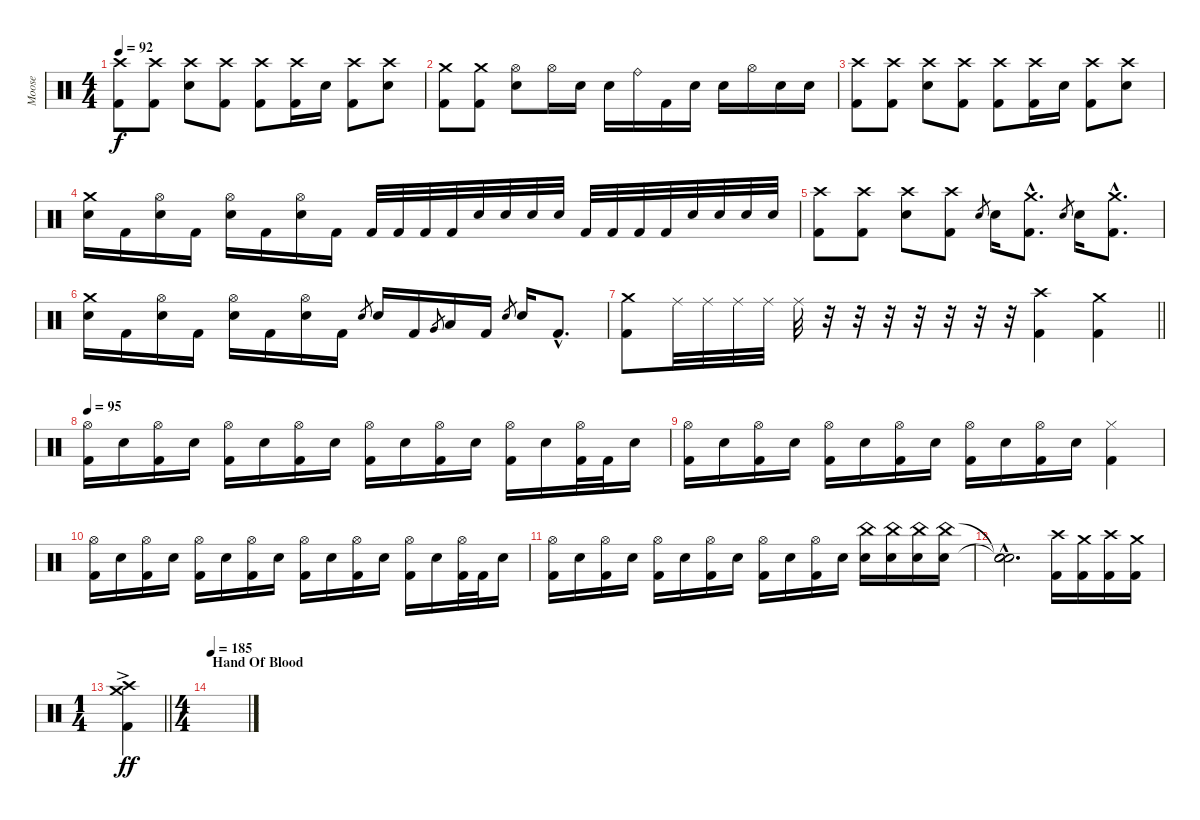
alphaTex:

\track ("Moose" "Moose") {instrument percussion}
\staff {score}
\articulation defaults
\ts (4 4)
\tempo 92
\clef neutral
\ks c
("Crash high (hit)" "Kick (hit) 2").8{dy f} ("Crash high (hit)" "Kick (hit) 2").8 ("Crash high (hit)" "Electric Snare (hit)").8 ("Crash high (hit)" "Kick (hit) 2").8 ("Crash high (hit)" "Kick (hit) 2").8 ("Crash high (hit)" "Kick (hit) 2").16 "Electric Snare (hit)".16 ("Crash high (hit)" "Kick (hit) 2").8 ("Crash high (hit)" "Electric Snare (hit)").8 |
("Crash medium (hit)" "Kick (hit) 2").8 ("Crash medium (hit)" "Kick (hit) 2").8 ("Hi-Hat (open)" "Electric Snare (hit)").8 "Hi-Hat (open)".16 "Electric Snare (hit)".16 "Electric Snare (hit)".16 "Ride (bell)".16 "Kick (hit) 2".16 "Electric Snare (hit)".16 "Electric Snare (hit)".16 "Hi-Hat (open)".16 "Electric Snare (hit)".16 "Electric Snare (hit)".16 |
("Crash high (hit)" "Kick (hit) 2").8 ("Crash high (hit)" "Kick (hit) 2").8 ("Crash high (hit)" "Electric Snare (hit)").8 ("Crash high (hit)" "Kick (hit) 2").8 ("Crash high (hit)" "Kick (hit) 2").8 ("Crash high (hit)" "Kick (hit) 2").16 "Electric Snare (hit)".16 ("Crash high (hit)" "Kick (hit) 2").8 ("Crash high (hit)" "Electric Snare (hit)").8 |
("Crash medium (hit)" "Electric Snare (hit)").16 "Kick (hit) 2".16 ("Hi-Hat (open)" "Electric Snare (hit)").16 "Kick (hit) 2".16 ("Hi-Hat (open)" "Electric Snare (hit)").16 "Kick (hit) 2".16 ("Hi-Hat (open)" "Electric Snare (hit)").16 "Kick (hit) 2".16 "Kick (hit) 2".32 "Kick (hit) 2".32 "Kick (hit) 2".32 "Kick (hit) 2".32 "Electric Snare (hit)".32 "Electric Snare (hit)".32 "Electric Snare (hit)".32 "Electric Snare (hit)".32 "Kick (hit) 2".32 "Kick (hit) 2".32 "Kick (hit) 2".32 "Kick (hit) 2".32 "Electric Snare (hit)".32 "Electric Snare (hit)".32 "Electric Snare (hit)".32 "Electric Snare (hit)".32 |
("Crash high (hit)" "Kick (hit) 2").8 ("Crash high (hit)" "Kick (hit) 2").8 ("Crash high (hit)" "Electric Snare (hit)").8 ("Crash high (hit)" "Kick (hit) 2").8 "Electric Snare (hit)".8{gr} "Electric Snare (hit)".16 ("Crash medium (hit)"{hac} "Kick (hit) 2"{hac}).8{d} "Electric Snare (hit)".8{gr} "Electric Snare (hit)".16 ("Crash medium (hit)"{hac} "Kick (hit) 2"{hac}).8{d} |
("Crash medium (hit)" "Electric Snare (hit)").16 "Kick (hit) 2".16 ("Hi-Hat (open)" "Electric Snare (hit)").16 "Kick (hit) 2".16 ("Hi-Hat (open)" "Electric Snare (hit)").16 "Kick (hit) 2".16 ("Hi-Hat (open)" "Electric Snare (hit)").16 "Kick (hit) 2".16 "Electric Snare (hit)".8{gr} "Electric Snare (hit)".16 "Kick (hit) 2".16 "Very Low Tom (hit)".8{gr} "Low Floor Tom (hit)".16 "Kick (hit) 2".16 "Electric Snare (hit)".8{gr} "Electric Snare (hit)".16 "Kick (hit) 2"{hac}.8{d} |
\barLineRight lightlight
("Crash medium (hit)" "Kick (hit) 2").8 "Ride (middle)".32 "Ride (middle)".32 "Ride (middle)".32 "Ride (middle)".32 "Ride (middle)".32 r.32 r.32 r.32 r.32 r.32 r.32 r.32 ("Crash high (hit)" "Kick (hit) 2").4 ("Crash medium (hit)" "Kick (hit) 2").4 |
\tempo 95
("Hi-Hat (open)" "Kick (hit) 2").16 "Electric Snare (hit)".16 ("Hi-Hat (open)" "Kick (hit) 2").16 "Electric Snare (hit)".16 ("Hi-Hat (open)" "Kick (hit) 2").16 "Electric Snare (hit)".16 ("Hi-Hat (open)" "Kick (hit) 2").16 "Electric Snare (hit)".16 ("Hi-Hat (open)" "Kick (hit) 2").16 "Electric Snare (hit)".16 ("Hi-Hat (open)" "Kick (hit) 2").16 "Electric Snare (hit)".16 ("Hi-Hat (open)" "Kick (hit) 2").16 "Electric Snare (hit)".16 ("Hi-Hat (open)" "Kick (hit) 2").32 "Kick (hit) 2".32 "Electric Snare (hit)".16 |
("Hi-Hat (open)" "Kick (hit) 2").16 "Electric Snare (hit)".16 ("Hi-Hat (open)" "Kick (hit) 2").16 "Electric Snare (hit)".16 ("Hi-Hat (open)" "Kick (hit) 2").16 "Electric Snare (hit)".16 ("Hi-Hat (open)" "Kick (hit) 2").16 "Electric Snare (hit)".16 ("Hi-Hat (open)" "Kick (hit) 2").16 "Electric Snare (hit)".16 ("Hi-Hat (open)" "Kick (hit) 2").16 "Electric Snare (hit)".16 ("Hi-Hat (closed)" "Kick (hit) 2").4 |
("Hi-Hat (open)" "Kick (hit) 2").16 "Electric Snare (hit)".16 ("Hi-Hat (open)" "Kick (hit) 2").16 "Electric Snare (hit)".16 ("Hi-Hat (open)" "Kick (hit) 2").16 "Electric Snare (hit)".16 ("Hi-Hat (open)" "Kick (hit) 2").16 "Electric Snare (hit)".16 ("Hi-Hat (open)" "Kick (hit) 2").16 "Electric Snare (hit)".16 ("Hi-Hat (open)" "Kick (hit) 2").16 "Electric Snare (hit)".16 ("Hi-Hat (open)" "Kick (hit) 2").16 "Electric Snare (hit)".16 ("Hi-Hat (open)" "Kick (hit) 2").32 "Kick (hit) 2".32 "Electric Snare (hit)".16 |
("Hi-Hat (open)" "Kick (hit) 2").16 "Electric Snare (hit)".16 ("Hi-Hat (open)" "Kick (hit) 2").16 "Electric Snare (hit)".16 ("Hi-Hat (open)" "Kick (hit) 2").16 "Electric Snare (hit)".16 ("Hi-Hat (open)" "Kick (hit) 2").16 "Electric Snare (hit)".16 ("Hi-Hat (open)" "Kick (hit) 2").16 "Electric Snare (hit)".16 ("Hi-Hat (open)" "Kick (hit) 2").16 "Electric Snare (hit)".16 ("China (hit)" "Electric Snare (hit)").16 ("China (hit)" "Electric Snare (hit)").16 ("China (hit)" "Electric Snare (hit)").16 ("China (hit)" "Electric Snare (hit)").16 |
("Snare (hit)"{hac t} "Snare (hit)"{hac t} "Snare (hit)"{hac}).2{d} ("Crash high (hit)" "Kick (hit) 2").16 ("Crash medium (hit)" "Kick (hit) 2").16 ("Crash high (hit)" "Kick (hit) 2").16 ("Crash medium (hit)" "Kick (hit) 2").16 |
\ts (1 4)
\barLineRight lightlight
("Crash high (hit)" "Crash medium (hit)"{ac} "Kick (hit) 2").4{dy ff} |
\ts (4 4)
\section ("" "Hand Of Blood")
\tempo 185
